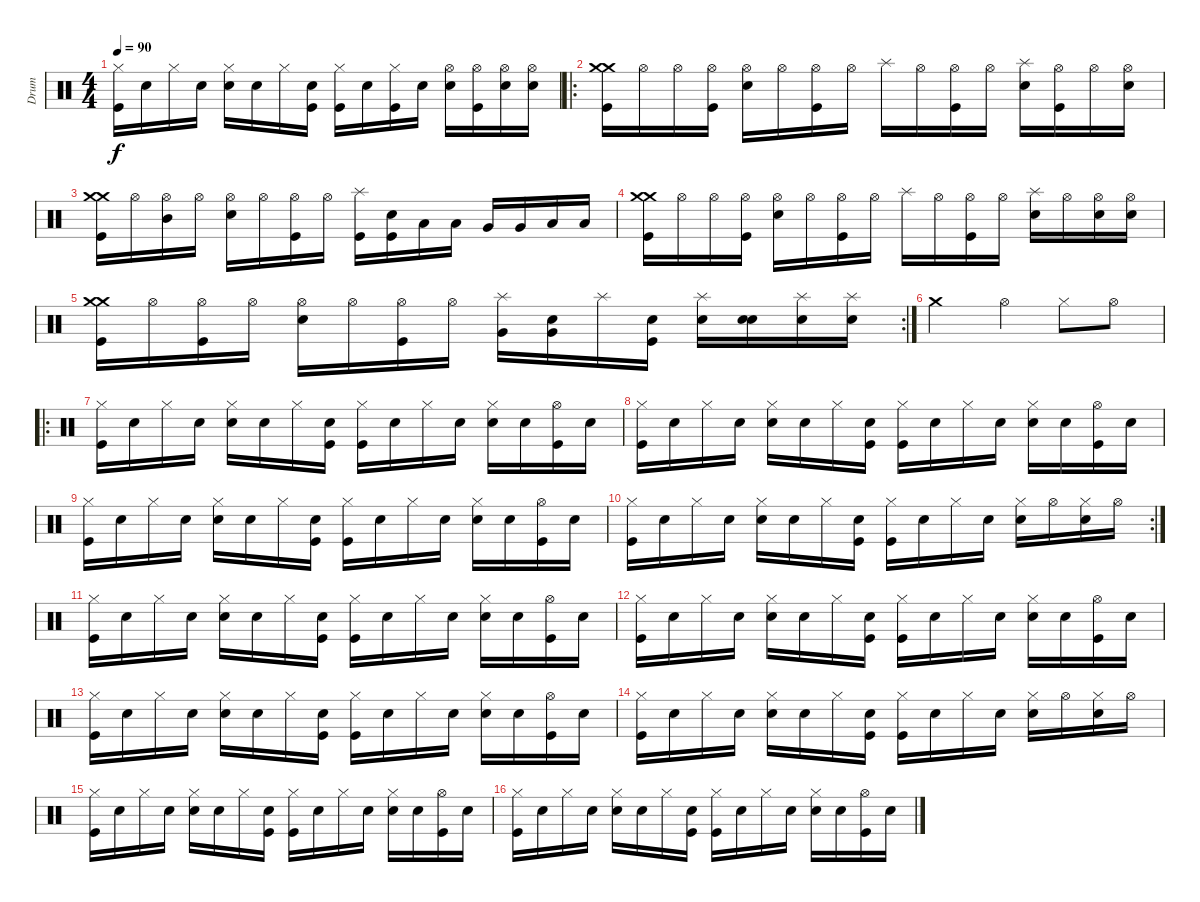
\track ("Drum" "Drum") {instrument percussion}
\staff {score}
\articulation defaults
\ts (4 4)
\tempo 90
\clef neutral
\ks c
("Hi-Hat (closed)" "Kick (hit)").16{dy f} "Snare (hit)".16 "Hi-Hat (closed)".16 "Snare (hit)".16 ("Hi-Hat (closed)" "Electric Snare (hit)").16 "Snare (hit)".16 "Hi-Hat (closed)".16 ("Snare (hit)" "Kick (hit)").16 ("Hi-Hat (closed)" "Kick (hit)").16 "Snare (hit)".16 ("Hi-Hat (closed)" "Kick (hit)").16 "Snare (hit)".16 ("Hi-Hat (open)" "Electric Snare (hit)").16 ("Hi-Hat (open)" "Kick (hit)").16 ("Hi-Hat (open)" "Electric Snare (hit)").16 ("Hi-Hat (open)" "Electric Snare (hit)").16 |
\ro
("Crash medium (hit)" "Crash medium (hit)" "Kick (hit)").16 "Hi-Hat (open)".16 "Hi-Hat (open)".16 ("Hi-Hat (open)" "Kick (hit)").16 ("Hi-Hat (open)" "Electric Snare (hit)").16 "Hi-Hat (open)".16 ("Hi-Hat (open)" "Kick (hit)").16 "Hi-Hat (open)".16 "Splash (hit)".16 "Hi-Hat (open)".16 ("Hi-Hat (open)" "Kick (hit)").16 "Hi-Hat (open)".16 ("Splash (hit)" "Electric Snare (hit)").16 ("Hi-Hat (open)" "Kick (hit)").16 "Hi-Hat (open)".16 ("Hi-Hat (open)" "Electric Snare (hit)").16 |
("Crash medium (hit)" "Crash medium (hit)" "Kick (hit)").16 "Hi-Hat (open)".16 ("Hi-Hat (open)" "Mid Tom (hit)").16 "Hi-Hat (open)".16 ("Hi-Hat (open)" "Electric Snare (hit)").16 "Hi-Hat (open)".16 ("Hi-Hat (open)" "Kick (hit)").16 "Hi-Hat (open)".16 ("Splash (hit)" "Kick (hit)").16 ("Snare (hit)" "Kick (hit)").16 "Low Tom (hit)".16 "Low Tom (hit)".16 "Very Low Tom (hit)".16 "Very Low Tom (hit)".16 "Low Floor Tom (hit)".16 "Low Floor Tom (hit)".16 |
("Crash medium (hit)" "Crash medium (hit)" "Kick (hit)").16 "Hi-Hat (open)".16 "Hi-Hat (open)".16 ("Hi-Hat (open)" "Kick (hit)").16 ("Hi-Hat (open)" "Electric Snare (hit)").16 "Hi-Hat (open)".16 ("Hi-Hat (open)" "Kick (hit)").16 "Hi-Hat (open)".16 "Splash (hit)".16 "Hi-Hat (open)".16 ("Hi-Hat (open)" "Kick (hit)").16 "Hi-Hat (open)".16 ("Splash (hit)" "Electric Snare (hit)").16 "Hi-Hat (open)".16 ("Hi-Hat (open)" "Electric Snare (hit)").16 ("Hi-Hat (open)" "Electric Snare (hit)").16 |
\rc 2
("Crash medium (hit)" "Crash medium (hit)" "Kick (hit)").16 "Hi-Hat (open)".16 ("Hi-Hat (open)" "Kick (hit)").16 "Hi-Hat (open)".16 ("Hi-Hat (open)" "Electric Snare (hit)").16 "Hi-Hat (open)".16 ("Hi-Hat (open)" "Kick (hit)").16 "Hi-Hat (open)".16 ("Splash (hit)" "Very Low Tom (hit)").16 ("Snare (hit)" "Very Low Tom (hit)").16 "Splash (hit)".16 ("Snare (hit)" "Kick (hit)").16 ("Splash (hit)" "Electric Snare (hit)").16 ("Snare (hit)" "Electric Snare (hit)").16 ("Splash (hit)" "Electric Snare (hit)").16 ("Splash (hit)" "Electric Snare (hit)").16 |
"Crash medium (hit)".2 "Hi-Hat (open)".4 "Hi-Hat (closed)".8 "Hi-Hat (open)".8 |
\ro
("Hi-Hat (closed)" "Kick (hit)").16 "Snare (hit)".16 "Hi-Hat (closed)".16 "Snare (hit)".16 ("Hi-Hat (closed)" "Electric Snare (hit)").16 "Snare (hit)".16 "Hi-Hat (closed)".16 ("Snare (hit)" "Kick (hit)").16 ("Hi-Hat (closed)" "Kick (hit)").16 "Snare (hit)".16 "Hi-Hat (closed)".16 "Snare (hit)".16 ("Hi-Hat (closed)" "Electric Snare (hit)").16 "Snare (hit)".16 ("Hi-Hat (open)" "Kick (hit)").16 "Snare (hit)".16 |
("Hi-Hat (closed)" "Kick (hit)").16 "Snare (hit)".16 "Hi-Hat (closed)".16 "Snare (hit)".16 ("Hi-Hat (closed)" "Electric Snare (hit)").16 "Snare (hit)".16 "Hi-Hat (closed)".16 ("Snare (hit)" "Kick (hit)").16 ("Hi-Hat (closed)" "Kick (hit)").16 "Snare (hit)".16 "Hi-Hat (closed)".16 "Snare (hit)".16 ("Hi-Hat (closed)" "Electric Snare (hit)").16 "Snare (hit)".16 ("Hi-Hat (open)" "Kick (hit)").16 "Snare (hit)".16 |
("Hi-Hat (closed)" "Kick (hit)").16 "Snare (hit)".16 "Hi-Hat (closed)".16 "Snare (hit)".16 ("Hi-Hat (closed)" "Electric Snare (hit)").16 "Snare (hit)".16 "Hi-Hat (closed)".16 ("Snare (hit)" "Kick (hit)").16 ("Hi-Hat (closed)" "Kick (hit)").16 "Snare (hit)".16 "Hi-Hat (closed)".16 "Snare (hit)".16 ("Hi-Hat (closed)" "Electric Snare (hit)").16 "Snare (hit)".16 ("Hi-Hat (open)" "Kick (hit)").16 "Snare (hit)".16 |
\rc 2
("Hi-Hat (closed)" "Kick (hit)").16 "Snare (hit)".16 "Hi-Hat (closed)".16 "Snare (hit)".16 ("Hi-Hat (closed)" "Electric Snare (hit)").16 "Snare (hit)".16 "Hi-Hat (closed)".16 ("Snare (hit)" "Kick (hit)").16 ("Hi-Hat (closed)" "Kick (hit)").16 "Snare (hit)".16 "Hi-Hat (closed)".16 "Snare (hit)".16 ("Hi-Hat (closed)" "Electric Snare (hit)").16 "Hi-Hat (open)".16 ("Hi-Hat (closed)" "Electric Snare (hit)").16 "Hi-Hat (open)".16 |
("Hi-Hat (closed)" "Kick (hit)").16 "Snare (hit)".16 "Hi-Hat (closed)".16 "Snare (hit)".16 ("Hi-Hat (closed)" "Electric Snare (hit)").16 "Snare (hit)".16 "Hi-Hat (closed)".16 ("Snare (hit)" "Kick (hit)").16 ("Hi-Hat (closed)" "Kick (hit)").16 "Snare (hit)".16 "Hi-Hat (closed)".16 "Snare (hit)".16 ("Hi-Hat (closed)" "Electric Snare (hit)").16 "Snare (hit)".16 ("Hi-Hat (open)" "Kick (hit)").16 "Snare (hit)".16 |
("Hi-Hat (closed)" "Kick (hit)").16 "Snare (hit)".16 "Hi-Hat (closed)".16 "Snare (hit)".16 ("Hi-Hat (closed)" "Electric Snare (hit)").16 "Snare (hit)".16 "Hi-Hat (closed)".16 ("Snare (hit)" "Kick (hit)").16 ("Hi-Hat (closed)" "Kick (hit)").16 "Snare (hit)".16 "Hi-Hat (closed)".16 "Snare (hit)".16 ("Hi-Hat (closed)" "Electric Snare (hit)").16 "Snare (hit)".16 ("Hi-Hat (open)" "Kick (hit)").16 "Snare (hit)".16 |
("Hi-Hat (closed)" "Kick (hit)").16 "Snare (hit)".16 "Hi-Hat (closed)".16 "Snare (hit)".16 ("Hi-Hat (closed)" "Electric Snare (hit)").16 "Snare (hit)".16 "Hi-Hat (closed)".16 ("Snare (hit)" "Kick (hit)").16 ("Hi-Hat (closed)" "Kick (hit)").16 "Snare (hit)".16 "Hi-Hat (closed)".16 "Snare (hit)".16 ("Hi-Hat (closed)" "Electric Snare (hit)").16 "Snare (hit)".16 ("Hi-Hat (open)" "Kick (hit)").16 "Snare (hit)".16 |
("Hi-Hat (closed)" "Kick (hit)").16 "Snare (hit)".16 "Hi-Hat (closed)".16 "Snare (hit)".16 ("Hi-Hat (closed)" "Electric Snare (hit)").16 "Snare (hit)".16 "Hi-Hat (closed)".16 ("Snare (hit)" "Kick (hit)").16 ("Hi-Hat (closed)" "Kick (hit)").16 "Snare (hit)".16 "Hi-Hat (closed)".16 "Snare (hit)".16 ("Hi-Hat (closed)" "Electric Snare (hit)").16 "Hi-Hat (open)".16 ("Hi-Hat (closed)" "Electric Snare (hit)").16 "Hi-Hat (open)".16 |
("Hi-Hat (closed)" "Kick (hit)").16 "Snare (hit)".16 "Hi-Hat (closed)".16 "Snare (hit)".16 ("Hi-Hat (closed)" "Electric Snare (hit)").16 "Snare (hit)".16 "Hi-Hat (closed)".16 ("Snare (hit)" "Kick (hit)").16 ("Hi-Hat (closed)" "Kick (hit)").16 "Snare (hit)".16 "Hi-Hat (closed)".16 "Snare (hit)".16 ("Hi-Hat (closed)" "Electric Snare (hit)").16 "Snare (hit)".16 ("Hi-Hat (open)" "Kick (hit)").16 "Snare (hit)".16 |
("Hi-Hat (closed)" "Kick (hit)").16 "Snare (hit)".16 "Hi-Hat (closed)".16 "Snare (hit)".16 ("Hi-Hat (closed)" "Electric Snare (hit)").16 "Snare (hit)".16 "Hi-Hat (closed)".16 ("Snare (hit)" "Kick (hit)").16 ("Hi-Hat (closed)" "Kick (hit)").16 "Snare (hit)".16 "Hi-Hat (closed)".16 "Snare (hit)".16 ("Hi-Hat (closed)" "Electric Snare (hit)").16 "Snare (hit)".16 ("Hi-Hat (open)" "Kick (hit)").16 "Snare (hit)".16
